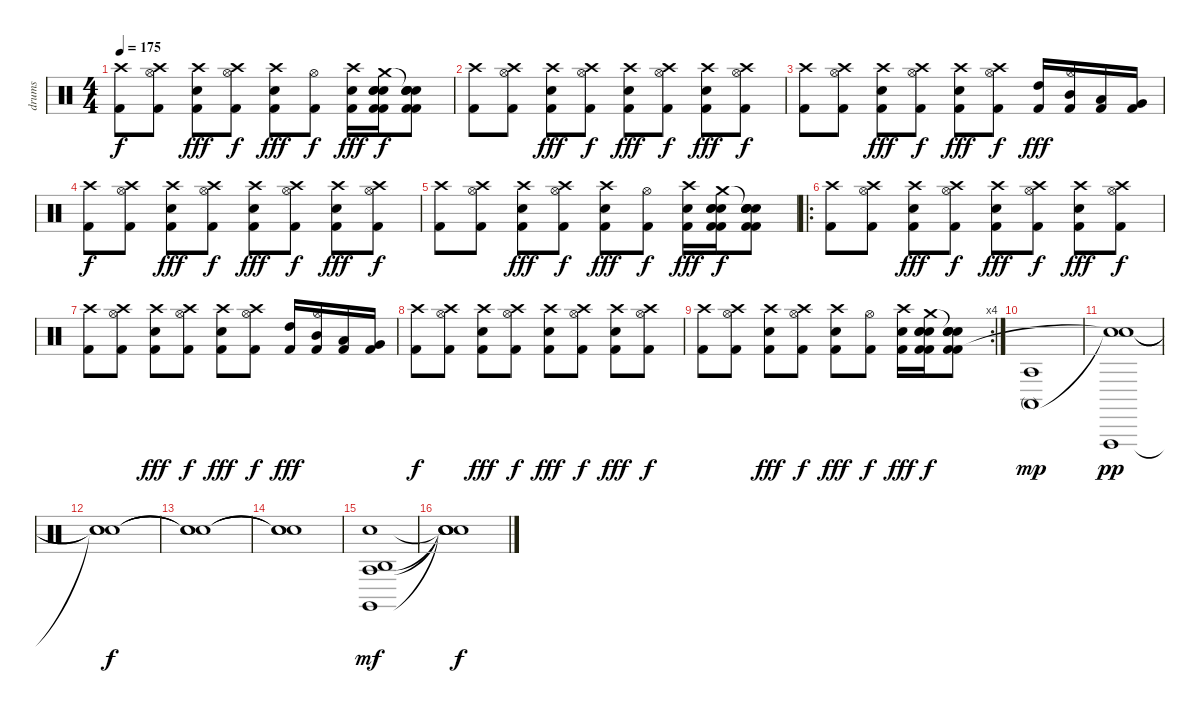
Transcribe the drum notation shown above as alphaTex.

\track ("drums" "drums") {instrument percussion}
\staff {score}
\articulation defaults
\ts (4 4)
\tempo 175
\clef neutral
\ks c
("Crash high (hit)" "Kick (hit) 2").8{dy f} ("Crash high (hit)" "Hi-Hat (open)" "Kick (hit) 2").8 ("Crash high (hit)" "Kick (hit) 2" "Electric Snare (hit)").8{dy fff} ("Crash high (hit)" "Hi-Hat (open)" "Kick (hit) 2").8{dy f} ("Crash high (hit)" "Kick (hit) 2" "Electric Snare (hit)").8{dy fff} ("Hi-Hat (open)" "Kick (hit) 2").8{dy f} ("Crash high (hit)" "Kick (hit) 2" "Electric Snare (hit)").16{dy fff} ("Crash medium (hit)" "Electric Snare (hit)" "Kick (hit) 2" "Electric Snare (hit)" "Kick (hit) 2" "Electric Snare (hit)").16{dy f} ("Snare (hit)"{t} "Electric Snare (hit)" "Kick (hit) 2" "Electric Snare (hit)" "Kick (hit) 2" "Electric Snare (hit)").8 |
("Crash high (hit)" "Kick (hit) 2").8{volume 13} ("Crash high (hit)" "Hi-Hat (open)" "Kick (hit) 2").8 ("Crash high (hit)" "Kick (hit) 2" "Electric Snare (hit)").8{dy fff} ("Crash high (hit)" "Hi-Hat (open)" "Kick (hit) 2").8{dy f} ("Crash high (hit)" "Kick (hit) 2" "Electric Snare (hit)").8{dy fff} ("Crash high (hit)" "Hi-Hat (open)" "Kick (hit) 2").8{dy f} ("Crash high (hit)" "Kick (hit) 2" "Electric Snare (hit)").8{dy fff} ("Crash high (hit)" "Hi-Hat (open)" "Kick (hit) 2").8{dy f} |
("Crash high (hit)" "Kick (hit) 2").8 ("Crash high (hit)" "Hi-Hat (open)" "Kick (hit) 2").8 ("Crash high (hit)" "Kick (hit) 2" "Electric Snare (hit)").8{dy fff} ("Crash high (hit)" "Hi-Hat (open)" "Kick (hit) 2").8{dy f} ("Crash high (hit)" "Kick (hit) 2" "Electric Snare (hit)").8{dy fff} ("Crash high (hit)" "Hi-Hat (open)" "Kick (hit) 2").8{dy f} ("High Tom (hit)" "Kick (hit) 2").16{dy fff} ("Mid Tom (hit)" "Hi-Hat (open)" "Kick (hit) 2").16 ("Low Tom (hit)" "Kick (hit) 2").16 ("Very Low Tom (hit)" "Kick (hit) 2").16 |
("Crash high (hit)" "Kick (hit) 2").8{dy f} ("Crash high (hit)" "Hi-Hat (open)" "Kick (hit) 2").8 ("Crash high (hit)" "Kick (hit) 2" "Electric Snare (hit)").8{dy fff} ("Crash high (hit)" "Hi-Hat (open)" "Kick (hit) 2").8{dy f} ("Crash high (hit)" "Kick (hit) 2" "Electric Snare (hit)").8{dy fff} ("Crash high (hit)" "Hi-Hat (open)" "Kick (hit) 2").8{dy f} ("Crash high (hit)" "Kick (hit) 2" "Electric Snare (hit)").8{dy fff} ("Crash high (hit)" "Hi-Hat (open)" "Kick (hit) 2").8{dy f} |
("Crash high (hit)" "Kick (hit) 2").8 ("Crash high (hit)" "Hi-Hat (open)" "Kick (hit) 2").8 ("Crash high (hit)" "Kick (hit) 2" "Electric Snare (hit)").8{dy fff} ("Crash high (hit)" "Hi-Hat (open)" "Kick (hit) 2").8{dy f} ("Crash high (hit)" "Kick (hit) 2" "Electric Snare (hit)").8{dy fff} ("Hi-Hat (open)" "Kick (hit) 2").8{dy f} ("Crash high (hit)" "Kick (hit) 2" "Electric Snare (hit)").16{dy fff} ("Crash medium (hit)" "Electric Snare (hit)" "Kick (hit) 2" "Electric Snare (hit)" "Kick (hit) 2" "Electric Snare (hit)").16{dy f} ("Snare (hit)"{t} "Electric Snare (hit)" "Kick (hit) 2" "Electric Snare (hit)" "Kick (hit) 2" "Electric Snare (hit)").8 |
\ro
("Crash high (hit)" "Kick (hit) 2").8{volume 13} ("Crash high (hit)" "Hi-Hat (open)" "Kick (hit) 2").8 ("Crash high (hit)" "Kick (hit) 2" "Electric Snare (hit)").8{dy fff} ("Crash high (hit)" "Hi-Hat (open)" "Kick (hit) 2").8{dy f} ("Crash high (hit)" "Kick (hit) 2" "Electric Snare (hit)").8{dy fff} ("Crash high (hit)" "Hi-Hat (open)" "Kick (hit) 2").8{dy f} ("Crash high (hit)" "Kick (hit) 2" "Electric Snare (hit)").8{dy fff} ("Crash high (hit)" "Hi-Hat (open)" "Kick (hit) 2").8{dy f} |
("Crash high (hit)" "Kick (hit) 2").8 ("Crash high (hit)" "Hi-Hat (open)" "Kick (hit) 2").8 ("Crash high (hit)" "Kick (hit) 2" "Electric Snare (hit)").8{dy fff} ("Crash high (hit)" "Hi-Hat (open)" "Kick (hit) 2").8{dy f} ("Crash high (hit)" "Kick (hit) 2" "Electric Snare (hit)").8{dy fff} ("Crash high (hit)" "Hi-Hat (open)" "Kick (hit) 2").8{dy f} ("High Tom (hit)" "Kick (hit) 2").16{dy fff} ("Mid Tom (hit)" "Hi-Hat (open)" "Kick (hit) 2").16 ("Low Tom (hit)" "Kick (hit) 2").16 ("Very Low Tom (hit)" "Kick (hit) 2").16 |
("Crash high (hit)" "Kick (hit) 2").8{dy f} ("Crash high (hit)" "Hi-Hat (open)" "Kick (hit) 2").8 ("Crash high (hit)" "Kick (hit) 2" "Electric Snare (hit)").8{dy fff} ("Crash high (hit)" "Hi-Hat (open)" "Kick (hit) 2").8{dy f} ("Crash high (hit)" "Kick (hit) 2" "Electric Snare (hit)").8{dy fff} ("Crash high (hit)" "Hi-Hat (open)" "Kick (hit) 2").8{dy f} ("Crash high (hit)" "Kick (hit) 2" "Electric Snare (hit)").8{dy fff} ("Crash high (hit)" "Hi-Hat (open)" "Kick (hit) 2").8{dy f} |
\rc 4
("Crash high (hit)" "Kick (hit) 2").8 ("Crash high (hit)" "Hi-Hat (open)" "Kick (hit) 2").8 ("Crash high (hit)" "Kick (hit) 2" "Electric Snare (hit)").8{dy fff} ("Crash high (hit)" "Hi-Hat (open)" "Kick (hit) 2").8{dy f} ("Crash high (hit)" "Kick (hit) 2" "Electric Snare (hit)").8{dy fff} ("Hi-Hat (open)" "Kick (hit) 2").8{dy f} ("Crash high (hit)" "Kick (hit) 2" "Electric Snare (hit)").16{dy fff} ("Crash medium (hit)" "Electric Snare (hit)" "Kick (hit) 2" "Electric Snare (hit)" "Kick (hit) 2" "Electric Snare (hit)").16{dy f} ("Snare (hit)"{t} "Electric Snare (hit)" "Kick (hit) 2" "Electric Snare (hit)" "Kick (hit) 2" "Electric Snare (hit)").8 |
("Agogo tow (hit)" "Conga high (mute)").1{dy mp} |
("Vibraslap (hit)" "Snare (hit)"{t} "Snare (hit)"{t}).1{dy pp} |
("Snare (hit)"{t} "Snare (hit)"{t} "Snare (hit)"{t}).1{dy f} |
("Snare (hit)"{t} "Snare (hit)"{t} "Snare (hit)"{t}).1 |
("Snare (hit)"{t} "Snare (hit)"{t} "Snare (hit)"{t}).1 |
("Agogo high (hit)" "Claves (hit)" "Agogo tow (hit)" "Snare (hit)").1{dy mf} |
("Snare (hit)"{t} "Snare (hit)"{t} "Snare (hit)"{t} "Snare (hit)"{t}).1{dy f}
